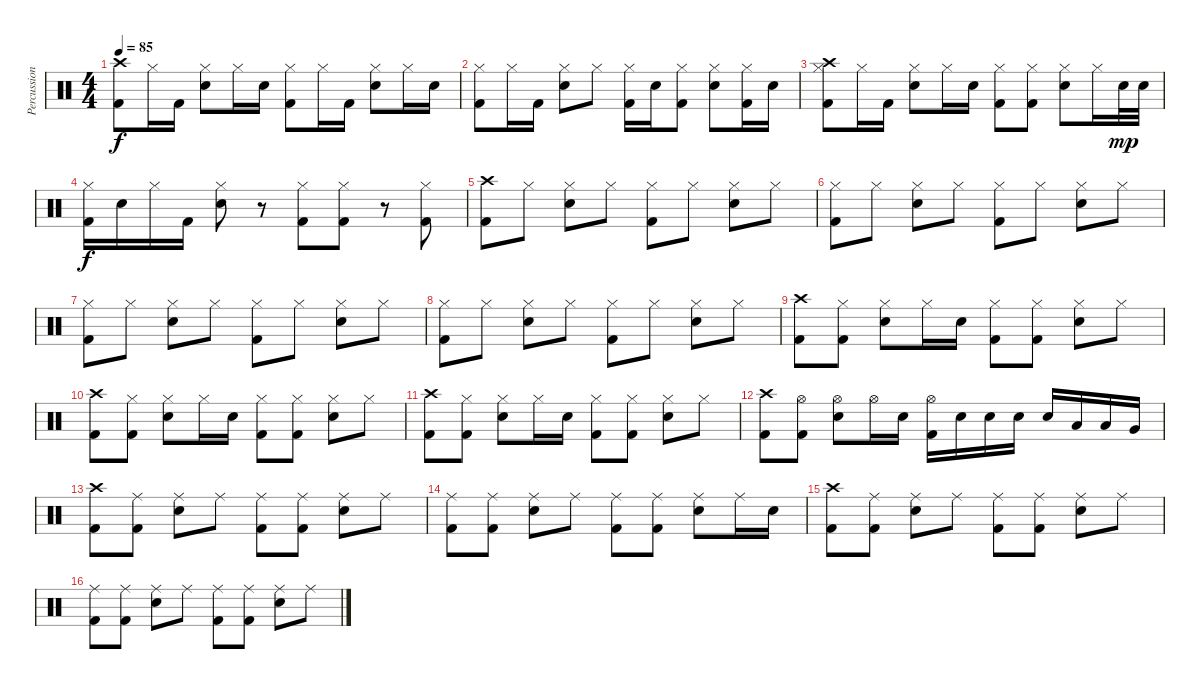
\track ("Percussion" "Percussion") {instrument percussion}
\staff {score}
\articulation defaults
\ts (4 4)
\tempo 85
\clef neutral
\ks c
("Crash high (hit)" "Kick (hit) 2").8{dy f} "Hi-Hat (closed)".16 "Kick (hit) 2".16 ("Hi-Hat (closed)" "Electric Snare (hit)").8 "Hi-Hat (closed)".16 "Electric Snare (hit)".16 ("Hi-Hat (closed)" "Kick (hit) 2").8 "Hi-Hat (closed)".16 "Kick (hit) 2".16 ("Hi-Hat (closed)" "Electric Snare (hit)").8 "Hi-Hat (closed)".16 "Electric Snare (hit)".16 |
("Hi-Hat (closed)" "Kick (hit) 2").8 "Hi-Hat (closed)".16 "Kick (hit) 2".16 ("Hi-Hat (closed)" "Electric Snare (hit)").8 "Hi-Hat (closed)".8 ("Hi-Hat (closed)" "Kick (hit) 2").16 "Electric Snare (hit)".16 ("Hi-Hat (closed)" "Kick (hit) 2").8 ("Hi-Hat (closed)" "Electric Snare (hit)").8 ("Hi-Hat (closed)" "Kick (hit) 2").16 "Electric Snare (hit)".16 |
("Crash high (hit)" "Hi-Hat (closed)" "Kick (hit) 2").8 "Hi-Hat (closed)".16 "Kick (hit) 2".16 ("Hi-Hat (closed)" "Electric Snare (hit)").8 "Hi-Hat (closed)".16 "Electric Snare (hit)".16 ("Hi-Hat (closed)" "Kick (hit) 2").8 ("Hi-Hat (closed)" "Kick (hit) 2").8 ("Hi-Hat (closed)" "Electric Snare (hit)").8 "Hi-Hat (closed)".16 "Electric Snare (hit)".32{dy mp} "Electric Snare (hit)".32 |
("Hi-Hat (closed)" "Kick (hit) 2").16{dy f} "Electric Snare (hit)".16 "Hi-Hat (closed)".16 "Kick (hit) 2".16 ("Hi-Hat (closed)" "Electric Snare (hit)").8 r.8 ("Hi-Hat (closed)" "Kick (hit) 2").8 ("Hi-Hat (closed)" "Kick (hit) 2").8 r.8 ("Hi-Hat (closed)" "Kick (hit) 2").8 |
("Crash high (hit)" "Kick (hit) 2").8 "Hi-Hat (closed)".8 ("Hi-Hat (closed)" "Electric Snare (hit)").8 "Hi-Hat (closed)".8 ("Hi-Hat (closed)" "Kick (hit) 2").8 "Hi-Hat (closed)".8 ("Hi-Hat (closed)" "Electric Snare (hit)").8 "Hi-Hat (closed)".8 |
("Hi-Hat (closed)" "Kick (hit) 2").8 "Hi-Hat (closed)".8 ("Hi-Hat (closed)" "Electric Snare (hit)").8 "Hi-Hat (closed)".8 ("Hi-Hat (closed)" "Kick (hit) 2").8 "Hi-Hat (closed)".8 ("Hi-Hat (closed)" "Electric Snare (hit)").8 "Hi-Hat (closed)".8 |
("Hi-Hat (closed)" "Kick (hit) 2").8 "Hi-Hat (closed)".8 ("Hi-Hat (closed)" "Electric Snare (hit)").8 "Hi-Hat (closed)".8 ("Hi-Hat (closed)" "Kick (hit) 2").8 "Hi-Hat (closed)".8 ("Hi-Hat (closed)" "Electric Snare (hit)").8 "Hi-Hat (closed)".8 |
("Hi-Hat (closed)" "Kick (hit) 2").8 "Hi-Hat (closed)".8 ("Hi-Hat (closed)" "Electric Snare (hit)").8 "Hi-Hat (closed)".8 ("Hi-Hat (closed)" "Kick (hit) 2").8 "Hi-Hat (closed)".8 ("Hi-Hat (closed)" "Electric Snare (hit)").8 "Hi-Hat (closed)".8 |
("Crash high (hit)" "Kick (hit) 2").8 ("Hi-Hat (closed)" "Kick (hit) 2").8 ("Hi-Hat (closed)" "Electric Snare (hit)").8 "Hi-Hat (closed)".16 "Electric Snare (hit)".16 ("Hi-Hat (closed)" "Kick (hit) 2").8 ("Hi-Hat (closed)" "Kick (hit) 2").8 ("Hi-Hat (closed)" "Electric Snare (hit)").8 "Hi-Hat (closed)".8 |
("Crash high (hit)" "Kick (hit) 2").8 ("Hi-Hat (closed)" "Kick (hit) 2").8 ("Hi-Hat (closed)" "Electric Snare (hit)").8 "Hi-Hat (closed)".16 "Electric Snare (hit)".16 ("Hi-Hat (closed)" "Kick (hit) 2").8 ("Hi-Hat (closed)" "Kick (hit) 2").8 ("Hi-Hat (closed)" "Electric Snare (hit)").8 "Hi-Hat (closed)".8 |
("Crash high (hit)" "Kick (hit) 2").8 ("Hi-Hat (closed)" "Kick (hit) 2").8 ("Hi-Hat (closed)" "Electric Snare (hit)").8 "Hi-Hat (closed)".16 "Electric Snare (hit)".16 ("Hi-Hat (closed)" "Kick (hit) 2").8 ("Hi-Hat (closed)" "Kick (hit) 2").8 ("Hi-Hat (closed)" "Electric Snare (hit)").8 "Hi-Hat (closed)".8 |
("Crash high (hit)" "Kick (hit) 2").8 ("Hi-Hat (open)" "Kick (hit) 2").8 ("Hi-Hat (open)" "Electric Snare (hit)").8 "Hi-Hat (open)".16 "Electric Snare (hit)".16 ("Hi-Hat (open)" "Kick (hit) 2").16 "Electric Snare (hit)".16 "Electric Snare (hit)".16 "Electric Snare (hit)".16 "Electric Snare (hit)".16 "Low Tom (hit)".16 "Low Tom (hit)".16 "Very Low Tom (hit)".16 |
("Crash high (hit)" "Kick (hit) 2").8 ("Ride (middle)" "Kick (hit) 2").8 ("Ride (middle)" "Electric Snare (hit)").8 "Ride (middle)".8 ("Ride (middle)" "Kick (hit) 2").8 ("Ride (middle)" "Kick (hit) 2").8 ("Ride (middle)" "Electric Snare (hit)").8 "Ride (middle)".8 |
("Ride (middle)" "Kick (hit) 2").8 ("Ride (middle)" "Kick (hit) 2").8 ("Ride (middle)" "Electric Snare (hit)").8 "Ride (middle)".8 ("Ride (middle)" "Kick (hit) 2").8 ("Ride (middle)" "Kick (hit) 2").8 ("Ride (middle)" "Electric Snare (hit)").8 "Ride (middle)".16 "Electric Snare (hit)".16 |
("Crash high (hit)" "Kick (hit) 2").8 ("Ride (middle)" "Kick (hit) 2").8 ("Ride (middle)" "Electric Snare (hit)").8 "Ride (middle)".8 ("Ride (middle)" "Kick (hit) 2").8 ("Ride (middle)" "Kick (hit) 2").8 ("Ride (middle)" "Electric Snare (hit)").8 "Ride (middle)".8 |
("Ride (middle)" "Kick (hit) 2").8 ("Ride (middle)" "Kick (hit) 2").8 ("Ride (middle)" "Electric Snare (hit)").8 "Ride (middle)".8 ("Ride (middle)" "Kick (hit) 2").8 ("Ride (middle)" "Kick (hit) 2").8 ("Ride (middle)" "Electric Snare (hit)").8 "Ride (middle)".8
